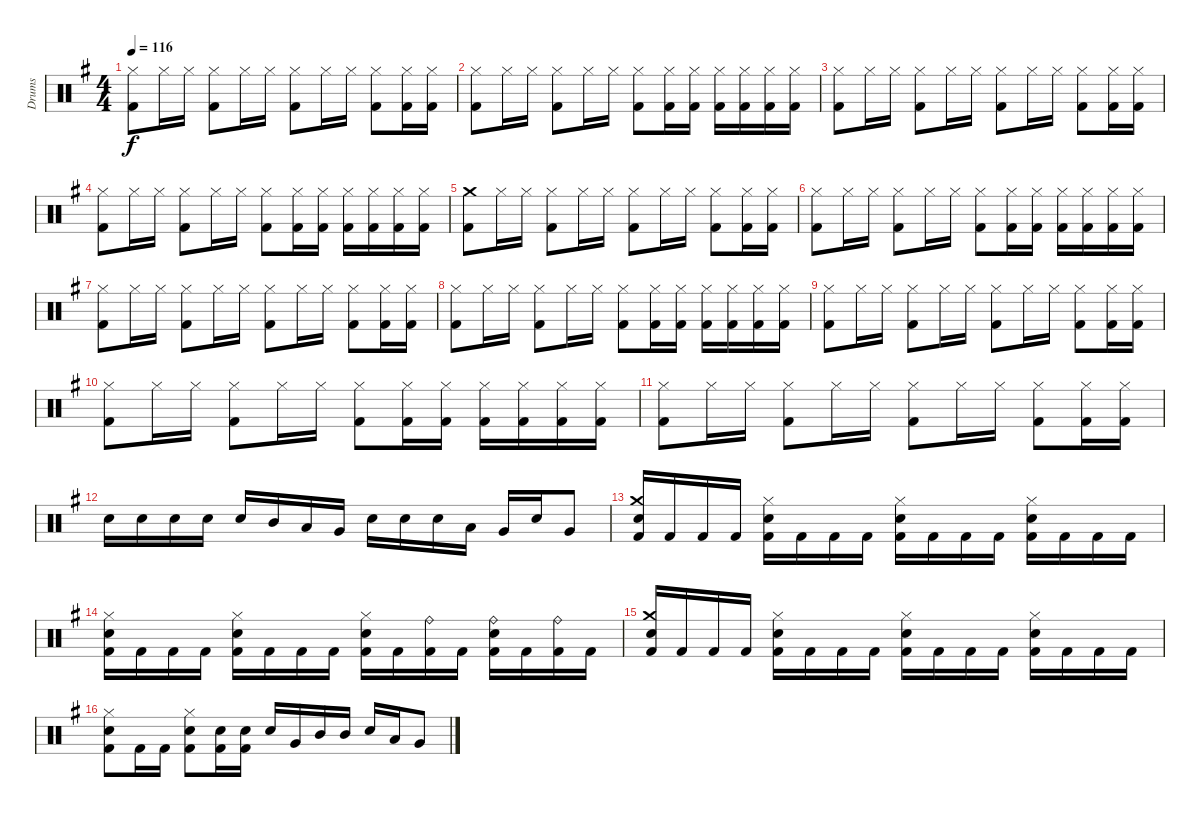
\track ("Drums" "Drums") {instrument percussion}
\staff {score}
\articulation defaults
\ts (4 4)
\tempo 116
\clef neutral
\ks eminor
("Hi-Hat (closed)" "Kick (hit) 2").8{dy f} "Hi-Hat (closed)".16 "Hi-Hat (closed)".16 ("Hi-Hat (closed)" "Kick (hit) 2").8 "Hi-Hat (closed)".16 "Hi-Hat (closed)".16 ("Hi-Hat (closed)" "Kick (hit) 2").8 "Hi-Hat (closed)".16 "Hi-Hat (closed)".16 ("Hi-Hat (closed)" "Kick (hit) 2").8 ("Hi-Hat (closed)" "Kick (hit) 2").16 ("Hi-Hat (closed)" "Kick (hit) 2").16 |
("Hi-Hat (closed)" "Kick (hit) 2").8 "Hi-Hat (closed)".16 "Hi-Hat (closed)".16 ("Hi-Hat (closed)" "Kick (hit) 2").8 "Hi-Hat (closed)".16 "Hi-Hat (closed)".16 ("Hi-Hat (closed)" "Kick (hit) 2").8 ("Hi-Hat (closed)" "Kick (hit) 2").16 ("Hi-Hat (closed)" "Kick (hit) 2").16 ("Hi-Hat (closed)" "Kick (hit) 2").16 ("Hi-Hat (closed)" "Kick (hit) 2").16 ("Hi-Hat (closed)" "Kick (hit) 2").16 ("Hi-Hat (closed)" "Kick (hit) 2").16 |
("Hi-Hat (closed)" "Kick (hit) 2").8 "Hi-Hat (closed)".16 "Hi-Hat (closed)".16 ("Hi-Hat (closed)" "Kick (hit) 2").8 "Hi-Hat (closed)".16 "Hi-Hat (closed)".16 ("Hi-Hat (closed)" "Kick (hit) 2").8 "Hi-Hat (closed)".16 "Hi-Hat (closed)".16 ("Hi-Hat (closed)" "Kick (hit) 2").8 ("Hi-Hat (closed)" "Kick (hit) 2").16 ("Hi-Hat (closed)" "Kick (hit) 2").16 |
("Hi-Hat (closed)" "Kick (hit) 2").8 "Hi-Hat (closed)".16 "Hi-Hat (closed)".16 ("Hi-Hat (closed)" "Kick (hit) 2").8 "Hi-Hat (closed)".16 "Hi-Hat (closed)".16 ("Hi-Hat (closed)" "Kick (hit) 2").8 ("Hi-Hat (closed)" "Kick (hit) 2").16 ("Hi-Hat (closed)" "Kick (hit) 2").16 ("Hi-Hat (closed)" "Kick (hit) 2").16 ("Hi-Hat (closed)" "Kick (hit) 2").16 ("Hi-Hat (closed)" "Kick (hit) 2").16 ("Hi-Hat (closed)" "Kick (hit) 2").16 |
("Crash medium (hit)" "Kick (hit) 2").8 "Hi-Hat (closed)".16 "Hi-Hat (closed)".16 ("Hi-Hat (closed)" "Kick (hit) 2").8 "Hi-Hat (closed)".16 "Hi-Hat (closed)".16 ("Hi-Hat (closed)" "Kick (hit) 2").8 "Hi-Hat (closed)".16 "Hi-Hat (closed)".16 ("Hi-Hat (closed)" "Kick (hit) 2").8 ("Hi-Hat (closed)" "Kick (hit) 2").16 ("Hi-Hat (closed)" "Kick (hit) 2").16 |
("Hi-Hat (closed)" "Kick (hit) 2").8 "Hi-Hat (closed)".16 "Hi-Hat (closed)".16 ("Hi-Hat (closed)" "Kick (hit) 2").8 "Hi-Hat (closed)".16 "Hi-Hat (closed)".16 ("Hi-Hat (closed)" "Kick (hit) 2").8 ("Hi-Hat (closed)" "Kick (hit) 2").16 ("Hi-Hat (closed)" "Kick (hit) 2").16 ("Hi-Hat (closed)" "Kick (hit) 2").16 ("Hi-Hat (closed)" "Kick (hit) 2").16 ("Hi-Hat (closed)" "Kick (hit) 2").16 ("Hi-Hat (closed)" "Kick (hit) 2").16 |
("Hi-Hat (closed)" "Kick (hit) 2").8 "Hi-Hat (closed)".16 "Hi-Hat (closed)".16 ("Hi-Hat (closed)" "Kick (hit) 2").8 "Hi-Hat (closed)".16 "Hi-Hat (closed)".16 ("Hi-Hat (closed)" "Kick (hit) 2").8 "Hi-Hat (closed)".16 "Hi-Hat (closed)".16 ("Hi-Hat (closed)" "Kick (hit) 2").8 ("Hi-Hat (closed)" "Kick (hit) 2").16 ("Hi-Hat (closed)" "Kick (hit) 2").16 |
("Hi-Hat (closed)" "Kick (hit) 2").8 "Hi-Hat (closed)".16 "Hi-Hat (closed)".16 ("Hi-Hat (closed)" "Kick (hit) 2").8 "Hi-Hat (closed)".16 "Hi-Hat (closed)".16 ("Hi-Hat (closed)" "Kick (hit) 2").8 ("Hi-Hat (closed)" "Kick (hit) 2").16 ("Hi-Hat (closed)" "Kick (hit) 2").16 ("Hi-Hat (closed)" "Kick (hit) 2").16 ("Hi-Hat (closed)" "Kick (hit) 2").16 ("Hi-Hat (closed)" "Kick (hit) 2").16 ("Hi-Hat (closed)" "Kick (hit) 2").16 |
("Hi-Hat (closed)" "Kick (hit) 2").8 "Hi-Hat (closed)".16 "Hi-Hat (closed)".16 ("Hi-Hat (closed)" "Kick (hit) 2").8 "Hi-Hat (closed)".16 "Hi-Hat (closed)".16 ("Hi-Hat (closed)" "Kick (hit) 2").8 "Hi-Hat (closed)".16 "Hi-Hat (closed)".16 ("Hi-Hat (closed)" "Kick (hit) 2").8 ("Hi-Hat (closed)" "Kick (hit) 2").16 ("Hi-Hat (closed)" "Kick (hit) 2").16 |
("Hi-Hat (closed)" "Kick (hit) 2").8 "Hi-Hat (closed)".16 "Hi-Hat (closed)".16 ("Hi-Hat (closed)" "Kick (hit) 2").8 "Hi-Hat (closed)".16 "Hi-Hat (closed)".16 ("Hi-Hat (closed)" "Kick (hit) 2").8 ("Hi-Hat (closed)" "Kick (hit) 2").16 ("Hi-Hat (closed)" "Kick (hit) 2").16 ("Hi-Hat (closed)" "Kick (hit) 2").16 ("Hi-Hat (closed)" "Kick (hit) 2").16 ("Hi-Hat (closed)" "Kick (hit) 2").16 ("Hi-Hat (closed)" "Kick (hit) 2").16 |
("Hi-Hat (closed)" "Kick (hit) 2").8 "Hi-Hat (closed)".16 "Hi-Hat (closed)".16 ("Hi-Hat (closed)" "Kick (hit) 2").8 "Hi-Hat (closed)".16 "Hi-Hat (closed)".16 ("Hi-Hat (closed)" "Kick (hit) 2").8 "Hi-Hat (closed)".16 "Hi-Hat (closed)".16 ("Hi-Hat (closed)" "Kick (hit) 2").8 ("Hi-Hat (closed)" "Kick (hit) 2").16 ("Hi-Hat (closed)" "Kick (hit) 2").16 |
"Snare (hit) 2".16 "Snare (hit) 2".16 "Snare (hit) 2".16 "Snare (hit) 2".16 "Snare (hit) 2".16 "Mid Tom (hit)".16 "Low Tom (hit)".16 "Very Low Tom (hit)".16 "Snare (hit) 2".16 "Snare (hit) 2".16 "Snare (hit) 2".16 "Low Tom (hit)".16 "Very Low Tom (hit)".16 "Snare (hit) 2".16 "Very Low Tom (hit)".8 |
("Crash medium (hit)" "Snare (hit) 2" "Kick (hit) 2").16 "Kick (hit) 2".16 "Kick (hit) 2".16 "Kick (hit) 2".16 ("Hi-Hat (closed)" "Snare (hit) 2" "Kick (hit) 2").16 "Kick (hit) 2".16 "Kick (hit) 2".16 "Kick (hit) 2".16 ("Hi-Hat (closed)" "Snare (hit) 2" "Kick (hit) 2").16 "Kick (hit) 2".16 "Kick (hit) 2".16 "Kick (hit) 2".16 ("Hi-Hat (closed)" "Snare (hit) 2" "Kick (hit) 2").16 "Kick (hit) 2".16 "Kick (hit) 2".16 "Kick (hit) 2".16 |
("Hi-Hat (closed)" "Snare (hit) 2" "Kick (hit) 2").16 "Kick (hit) 2".16 "Kick (hit) 2".16 "Kick (hit) 2".16 ("Hi-Hat (closed)" "Snare (hit) 2" "Kick (hit) 2").16 "Kick (hit) 2".16 "Kick (hit) 2".16 "Kick (hit) 2".16 ("Hi-Hat (closed)" "Snare (hit) 2" "Kick (hit) 2").16 "Kick (hit) 2".16 ("Ride (bell)" "Kick (hit) 2").16 "Kick (hit) 2".16 ("Ride (bell)" "Snare (hit) 2" "Kick (hit) 2").16 "Kick (hit) 2".16 ("Ride (bell)" "Kick (hit) 2").16 "Kick (hit) 2".16 |
("Crash medium (hit)" "Snare (hit) 2" "Kick (hit) 2").16 "Kick (hit) 2".16 "Kick (hit) 2".16 "Kick (hit) 2".16 ("Hi-Hat (closed)" "Snare (hit) 2" "Kick (hit) 2").16 "Kick (hit) 2".16 "Kick (hit) 2".16 "Kick (hit) 2".16 ("Hi-Hat (closed)" "Snare (hit) 2" "Kick (hit) 2").16 "Kick (hit) 2".16 "Kick (hit) 2".16 "Kick (hit) 2".16 ("Hi-Hat (closed)" "Snare (hit) 2" "Kick (hit) 2").16 "Kick (hit) 2".16 "Kick (hit) 2".16 "Kick (hit) 2".16 |
("Hi-Hat (closed)" "Snare (hit) 2" "Kick (hit) 2").8 "Kick (hit) 2".16 "Kick (hit) 2".16 ("Hi-Hat (closed)" "Snare (hit) 2" "Kick (hit) 2").8 ("Snare (hit) 2" "Kick (hit) 2").16 ("Snare (hit) 2" "Kick (hit) 2").16 "Snare (hit) 2".16 "Very Low Tom (hit)".16 "Mid Tom (hit)".16 "Mid Tom (hit)".16 "Snare (hit) 2".16 "Low Tom (hit)".16 "Very Low Tom (hit)".8
